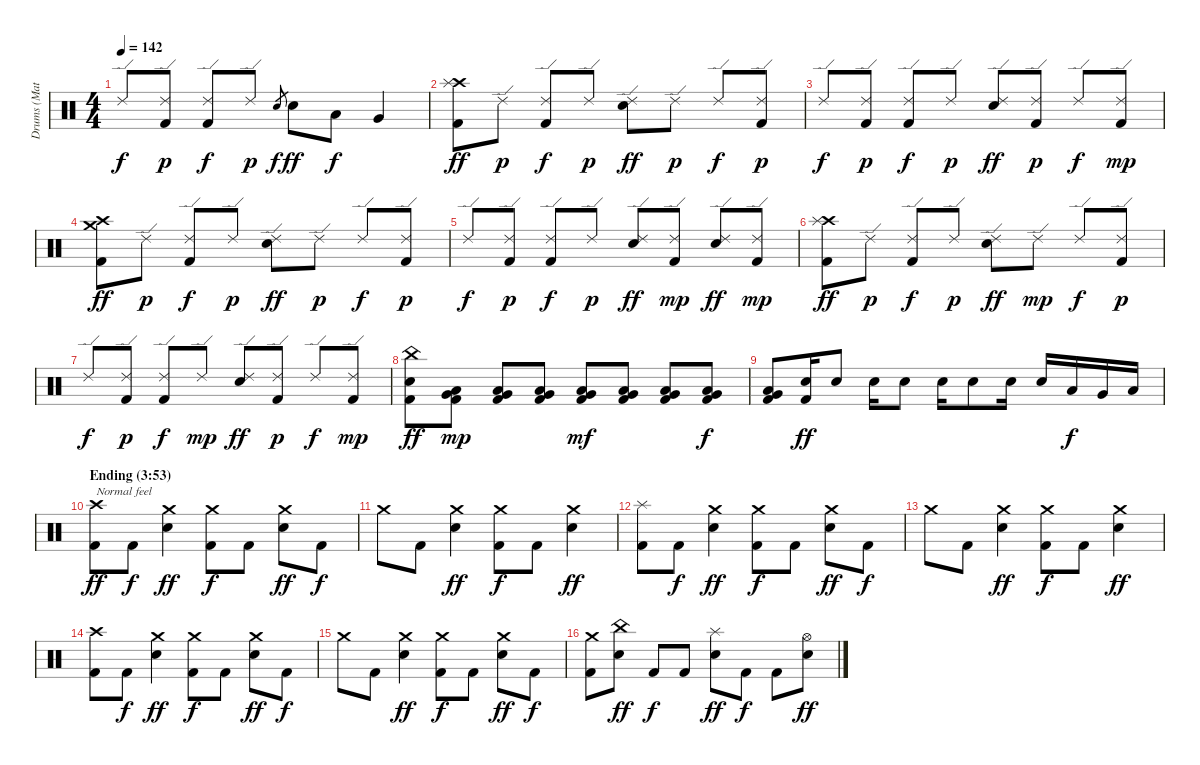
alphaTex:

\track ("Drums (Matt Sorum)" "Drums (Mat") {instrument percussion}
\staff {score}
\articulation defaults
\ts (4 4)
\tempo 142
\clef neutral
\ks c "Ride (edge) 2".8{dy f}
("Ride (edge) 2" "Kick (hit) 2").8{dy p} ("Ride (edge) 2" "Kick (hit) 2").8{dy f} "Ride (edge) 2".8{dy p} "Snare (hit) 2".8{gr dy f} "Snare (hit) 2".8{dy ff} "Low Tom (hit)".8{dy f} "Very Low Tom (hit)".4 |
("Crash high (hit)" "Splash (hit)" "Kick (hit) 2").8{dy ff} "Ride (edge) 2".8{dy p} ("Ride (edge) 2" "Kick (hit) 2").8{dy f} "Ride (edge) 2".8{dy p} ("Ride (edge) 2" "Snare (hit) 2").8{dy ff} "Ride (edge) 2".8{dy p} "Ride (edge) 2".8{dy f} ("Ride (edge) 2" "Kick (hit) 2").8{dy p} |
"Ride (edge) 2".8{dy f} ("Ride (edge) 2" "Kick (hit) 2").8{dy p} ("Ride (edge) 2" "Kick (hit) 2").8{dy f} "Ride (edge) 2".8{dy p} ("Ride (edge) 2" "Snare (hit) 2").8{dy ff} ("Ride (edge) 2" "Kick (hit) 2").8{dy p} "Ride (edge) 2".8{dy f} ("Ride (edge) 2" "Kick (hit) 2").8{dy mp} |
("Crash high (hit)" "Crash medium (hit)" "Kick (hit) 2").8{dy ff} "Ride (edge) 2".8{dy p} ("Ride (edge) 2" "Kick (hit) 2").8{dy f} "Ride (edge) 2".8{dy p} ("Ride (edge) 2" "Snare (hit) 2").8{dy ff} "Ride (edge) 2".8{dy p} "Ride (edge) 2".8{dy f} ("Ride (edge) 2" "Kick (hit) 2").8{dy p} |
"Ride (edge) 2".8{dy f} ("Ride (edge) 2" "Kick (hit) 2").8{dy p} ("Ride (edge) 2" "Kick (hit) 2").8{dy f} "Ride (edge) 2".8{dy p} ("Ride (edge) 2" "Snare (hit) 2").8{dy ff} ("Ride (edge) 2" "Kick (hit) 2").8{dy mp} ("Ride (edge) 2" "Snare (hit) 2").8{dy ff} ("Ride (edge) 2" "Kick (hit) 2").8{dy mp} |
("Crash high (hit)" "Splash (hit)" "Kick (hit) 2").8{dy ff} "Ride (edge) 2".8{dy p} ("Ride (edge) 2" "Kick (hit) 2").8{dy f} "Ride (edge) 2".8{dy p} ("Ride (edge) 2" "Snare (hit) 2").8{dy ff} "Ride (edge) 2".8{dy mp} "Ride (edge) 2".8{dy f} ("Ride (edge) 2" "Kick (hit) 2").8{dy p} |
"Ride (edge) 2".8{dy f} ("Ride (edge) 2" "Kick (hit) 2").8{dy p} ("Ride (edge) 2" "Kick (hit) 2").8{dy f} "Ride (edge) 2".8{dy mp} ("Ride (edge) 2" "Snare (hit) 2").8{dy ff} ("Ride (edge) 2" "Kick (hit) 2").8{dy p} "Ride (edge) 2".8{dy f} ("Ride (edge) 2" "Kick (hit) 2").8{dy mp} |
("China (hit)" "Snare (hit) 2" "Kick (hit) 2").8{dy ff} ("Very Low Tom (hit)" "Low Tom (hit)" "Kick (hit) 2").8{dy mp} ("Very Low Tom (hit)" "Low Tom (hit)" "Kick (hit) 2").8 ("Very Low Tom (hit)" "Low Tom (hit)" "Kick (hit) 2").8 ("Very Low Tom (hit)" "Low Tom (hit)" "Kick (hit) 2").8{dy mf} ("Very Low Tom (hit)" "Low Tom (hit)" "Kick (hit) 2").8 ("Very Low Tom (hit)" "Low Tom (hit)" "Kick (hit) 2").8 ("Very Low Tom (hit)" "Low Tom (hit)" "Kick (hit) 2").8{dy f} |
("Very Low Tom (hit)" "Low Tom (hit)" "Kick (hit) 2").8 ("Snare (hit) 2" "Kick (hit) 2").16{dy ff} "Snare (hit) 2".8 "Snare (hit) 2".16 "Snare (hit) 2".8 "Snare (hit) 2".16 "Snare (hit) 2".8 "Snare (hit) 2".16 "Snare (hit) 2".16 "Low Tom (hit)".16{dy f} "Very Low Tom (hit)".16 "Low Floor Tom (hit)".16 |
\section ("" "Ending (3:53)")
("Crash high (hit)" "Kick (hit) 2").8{txt "Normal feel" dy ff} "Kick (hit) 2".8{dy f} ("Crash medium (hit)" "Snare (hit) 2").4{dy ff} ("Crash medium (hit)" "Kick (hit) 2").8{dy f} "Kick (hit) 2".8 ("Crash medium (hit)" "Snare (hit) 2").8{dy ff} "Kick (hit) 2".8{dy f} |
"Crash medium (hit)".8 "Kick (hit) 2".8 ("Crash medium (hit)" "Snare (hit) 2").4{dy ff} ("Crash medium (hit)" "Kick (hit) 2").8{dy f} "Kick (hit) 2".8 ("Crash medium (hit)" "Snare (hit) 2").4{dy ff} |
("Splash (hit)" "Kick (hit) 2").8 "Kick (hit) 2".8{dy f} ("Crash medium (hit)" "Snare (hit) 2").4{dy ff} ("Crash medium (hit)" "Kick (hit) 2").8{dy f} "Kick (hit) 2".8 ("Crash medium (hit)" "Snare (hit) 2").8{dy ff} "Kick (hit) 2".8{dy f} |
"Crash medium (hit)".8 "Kick (hit) 2".8 ("Crash medium (hit)" "Snare (hit) 2").4{dy ff} ("Crash medium (hit)" "Kick (hit) 2").8{dy f} "Kick (hit) 2".8 ("Crash medium (hit)" "Snare (hit) 2").4{dy ff} |
("Crash high (hit)" "Kick (hit) 2").8 "Kick (hit) 2".8{dy f} ("Crash medium (hit)" "Snare (hit) 2").4{dy ff} ("Crash medium (hit)" "Kick (hit) 2").8{dy f} "Kick (hit) 2".8 ("Crash medium (hit)" "Snare (hit) 2").8{dy ff} "Kick (hit) 2".8{dy f} |
"Crash medium (hit)".8 "Kick (hit) 2".8 ("Crash medium (hit)" "Snare (hit) 2").4{dy ff} ("Crash medium (hit)" "Kick (hit) 2").8{dy f} "Kick (hit) 2".8 ("Crash medium (hit)" "Snare (hit) 2").8{dy ff} "Kick (hit) 2".8{dy f} |
("Crash medium (hit)" "Kick (hit) 2").8 ("China (hit)" "Snare (hit) 2").8{dy ff} "Kick (hit) 2".8{dy f} "Kick (hit) 2".8 ("Splash (hit)" "Snare (hit) 2").8{dy ff} "Kick (hit) 2".8{dy f} "Kick (hit) 2".8 ("Hi-Hat (open)" "Snare (hit) 2").8{dy ff}
